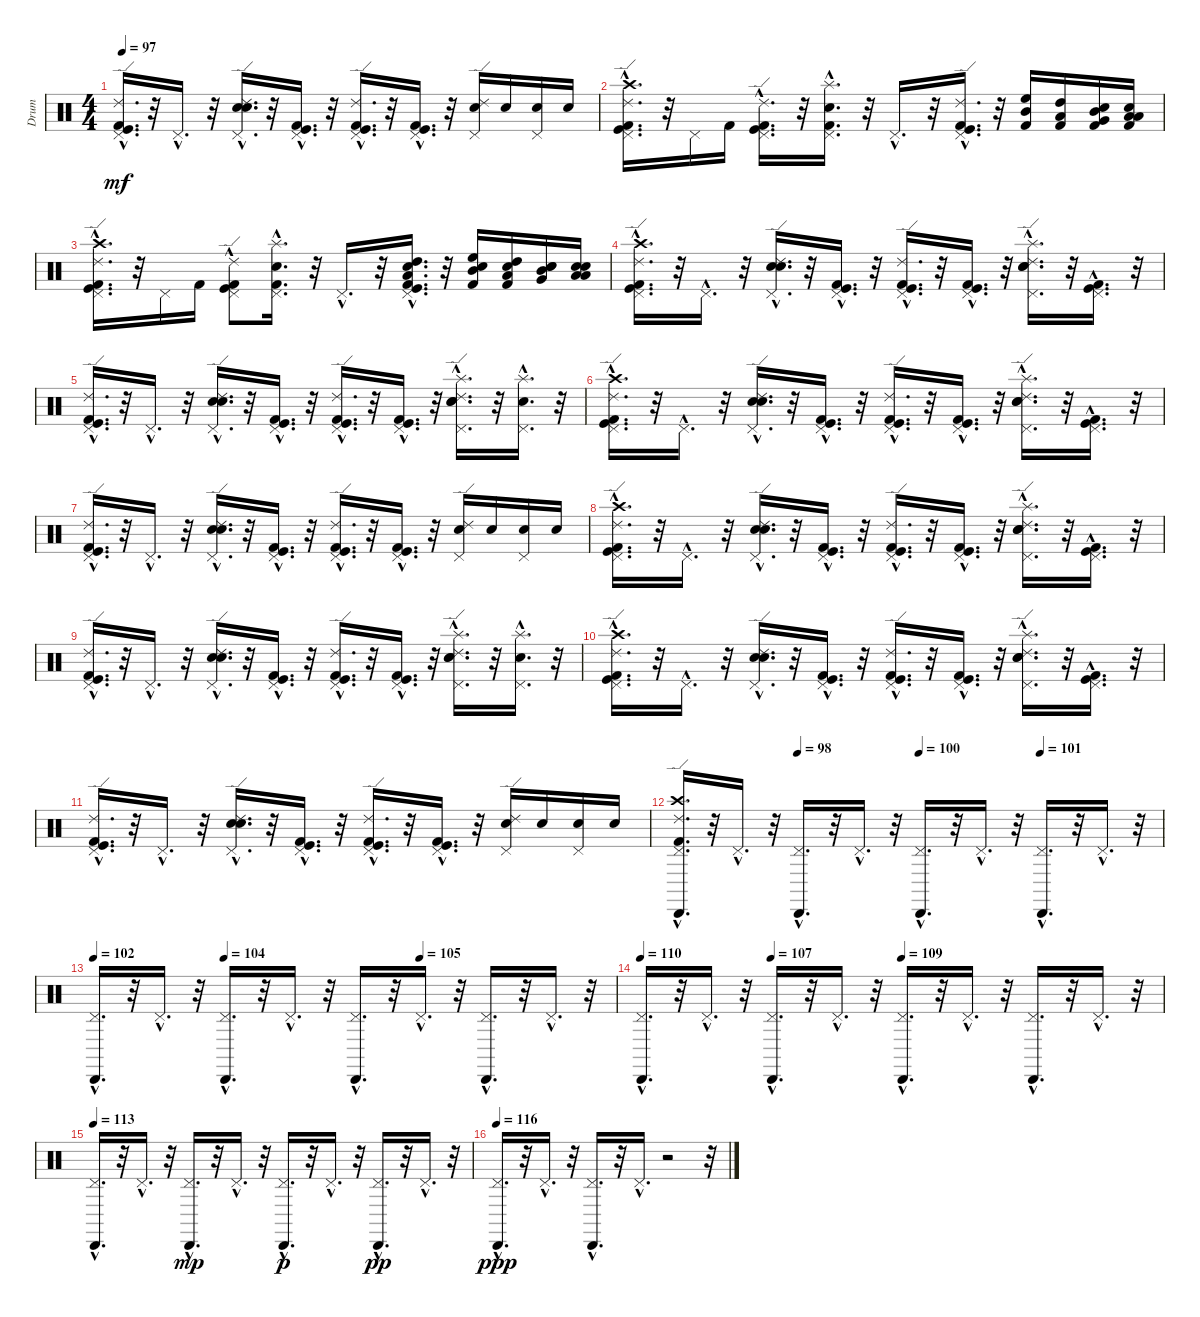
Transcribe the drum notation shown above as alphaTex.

\track ("Drum" "Drum") {instrument percussion}
\staff {score}
\articulation defaults
\ts (4 4)
\tempo 97
\clef neutral
\ks c
("Kick (hit)"{hac} "Kick (hit) 2"{hac} "Ride (edge) 2"{hac} "Pedal Hi-Hat (hit)"{hac}).16{d dy mf} r.32 "Pedal Hi-Hat (hit)"{hac}.16{d} r.32 ("Electric Snare (hit)"{hac} "Snare (hit) 2"{hac} "Ride (edge) 2"{hac} "Pedal Hi-Hat (hit)"{hac}).16{d} r.32 ("Kick (hit) 2"{hac} "Kick (hit)"{hac} "Pedal Hi-Hat (hit)"{hac}).16{d} r.32 ("Kick (hit) 2"{hac} "Kick (hit)"{hac} "Ride (edge) 2"{hac} "Pedal Hi-Hat (hit)"{hac}).16{d} r.32 ("Kick (hit) 2"{hac} "Kick (hit)"{hac} "Pedal Hi-Hat (hit)"{hac}).16{d} r.32 ("Ride (edge) 2" "Pedal Hi-Hat (hit)" "Snare (hit) 2").16 "Snare (hit) 2".16 ("Pedal Hi-Hat (hit)" "Snare (hit) 2").16 "Snare (hit) 2".16 |
("Kick (hit) 2"{hac} "Pedal Hi-Hat (hit)"{hac} "Kick (hit)"{hac} "Crash high (hit)"{hac} "Ride (edge) 2"{hac}).16{d} r.32 "Pedal Hi-Hat (hit)".16 "Kick (hit) 2".16 ("Pedal Hi-Hat (hit)"{hac} "Ride (edge) 2"{hac} "Kick (hit)"{hac} "Kick (hit) 2"{hac}).16{d} r.32 ("Pedal Hi-Hat (hit)"{hac} "Snare (hit) 2"{hac} "Kick (hit) 2"{hac} "Splash (hit)"{hac}).16{d} r.32 "Pedal Hi-Hat (hit)"{hac}.16{d} r.32 ("Ride (edge) 2"{hac} "Kick (hit) 2"{hac} "Pedal Hi-Hat (hit)"{hac} "Kick (hit)"{hac}).16{d} r.32 ("Kick (hit) 2" "High Floor Tom (hit)" "Mid Tom (hit)").16 ("Kick (hit) 2" "Low Tom (hit)" "High Tom (hit)").16 ("Very Low Tom (hit)" "Electric Snare (hit)" "Kick (hit) 2" "Mid Tom (hit)").16 ("Electric Snare (hit)" "Kick (hit) 2" "Low Floor Tom (hit)" "Low Tom (hit)").16 |
("Pedal Hi-Hat (hit)"{hac} "Ride (edge) 2"{hac} "Kick (hit) 2"{hac} "Crash high (hit)"{hac} "Kick (hit)"{hac}).16{d} r.32 "Pedal Hi-Hat (hit)".16 "Kick (hit) 2".16 ("Kick (hit)"{hac} "Ride (edge) 2"{hac} "Kick (hit) 2"{hac} "Pedal Hi-Hat (hit)"{hac}).8 ("Kick (hit) 2"{hac} "Pedal Hi-Hat (hit)"{hac} "Snare (hit) 2"{hac} "Splash (hit)"{hac}).16{d} r.32 "Pedal Hi-Hat (hit)"{hac}.16{d} r.32 ("Snare (hit) 2"{hac} "Low Tom (hit)"{hac} "High Tom (hit)"{hac} "Pedal Hi-Hat (hit)"{hac} "Kick (hit) 2"{hac} "Kick (hit)"{hac}).16{d} r.32 ("Kick (hit) 2" "Mid Tom (hit)" "High Floor Tom (hit)" "Snare (hit) 2").16 ("Low Tom (hit)" "High Tom (hit)" "Kick (hit) 2" "Snare (hit) 2").16 ("Electric Snare (hit)" "Mid Tom (hit)" "Snare (hit) 2" "Very Low Tom (hit)").16 ("Electric Snare (hit)" "Snare (hit) 2" "Low Tom (hit)" "Low Floor Tom (hit)").16 |
("Crash high (hit)"{hac} "Kick (hit)"{hac} "Ride (edge) 2"{hac} "Kick (hit) 2"{hac} "Pedal Hi-Hat (hit)"{hac}).16{d} r.32 "Pedal Hi-Hat (hit)"{hac}.16{d} r.32 ("Snare (hit) 2"{hac} "Ride (edge) 2"{hac} "Pedal Hi-Hat (hit)"{hac} "Electric Snare (hit)"{hac}).16{d} r.32 ("Kick (hit) 2"{hac} "Kick (hit)"{hac} "Pedal Hi-Hat (hit)"{hac}).16{d} r.32 ("Pedal Hi-Hat (hit)"{hac} "Kick (hit) 2"{hac} "Ride (edge) 2"{hac} "Kick (hit)"{hac}).16{d} r.32 ("Kick (hit) 2"{hac} "Kick (hit)"{hac} "Pedal Hi-Hat (hit)"{hac}).16{d} r.32 ("Ride (edge) 2"{hac} "Electric Snare (hit)"{hac} "Snare (hit) 2"{hac} "Pedal Hi-Hat (hit)"{hac} "Splash (hit)"{hac}).16{d} r.32 ("Pedal Hi-Hat (hit)"{hac} "Kick (hit) 2"{hac} "Kick (hit)"{hac}).16{d} r.32 |
("Pedal Hi-Hat (hit)"{hac} "Ride (edge) 2"{hac} "Kick (hit) 2"{hac} "Kick (hit)"{hac}).16{d} r.32 "Pedal Hi-Hat (hit)"{hac}.16{d} r.32 ("Pedal Hi-Hat (hit)"{hac} "Ride (edge) 2"{hac} "Snare (hit) 2"{hac} "Electric Snare (hit)"{hac}).16{d} r.32 ("Pedal Hi-Hat (hit)"{hac} "Kick (hit)"{hac} "Kick (hit) 2"{hac}).16{d} r.32 ("Pedal Hi-Hat (hit)"{hac} "Ride (edge) 2"{hac} "Kick (hit)"{hac} "Kick (hit) 2"{hac}).16{d} r.32 ("Pedal Hi-Hat (hit)"{hac} "Kick (hit)"{hac} "Kick (hit) 2"{hac}).16{d} r.32 ("Pedal Hi-Hat (hit)"{hac} "Ride (edge) 2"{hac} "Snare (hit) 2"{hac} "Electric Snare (hit)"{hac} "Splash (hit)"{hac}).16{d} r.32 ("Splash (hit)"{hac} "Snare (hit) 2"{hac} "Pedal Hi-Hat (hit)"{hac}).16{d} r.32 |
("Pedal Hi-Hat (hit)"{hac} "Ride (edge) 2"{hac} "Kick (hit) 2"{hac} "Kick (hit)"{hac} "Crash high (hit)"{hac}).16{d} r.32 "Pedal Hi-Hat (hit)"{hac}.16{d} r.32 ("Pedal Hi-Hat (hit)"{hac} "Ride (edge) 2"{hac} "Snare (hit) 2"{hac} "Electric Snare (hit)"{hac}).16{d} r.32 ("Pedal Hi-Hat (hit)"{hac} "Kick (hit)"{hac} "Kick (hit) 2"{hac}).16{d} r.32 ("Pedal Hi-Hat (hit)"{hac} "Ride (edge) 2"{hac} "Kick (hit)"{hac} "Kick (hit) 2"{hac}).16{d} r.32 ("Pedal Hi-Hat (hit)"{hac} "Kick (hit)"{hac} "Kick (hit) 2"{hac}).16{d} r.32 ("Pedal Hi-Hat (hit)"{hac} "Ride (edge) 2"{hac} "Snare (hit) 2"{hac} "Electric Snare (hit)"{hac} "Splash (hit)"{hac}).16{d} r.32 ("Kick (hit) 2"{hac} "Pedal Hi-Hat (hit)"{hac} "Kick (hit)"{hac}).16{d} r.32 |
("Kick (hit)"{hac} "Kick (hit) 2"{hac} "Ride (edge) 2"{hac} "Pedal Hi-Hat (hit)"{hac}).16{d} r.32 "Pedal Hi-Hat (hit)"{hac}.16{d} r.32 ("Electric Snare (hit)"{hac} "Snare (hit) 2"{hac} "Ride (edge) 2"{hac} "Pedal Hi-Hat (hit)"{hac}).16{d} r.32 ("Kick (hit) 2"{hac} "Kick (hit)"{hac} "Pedal Hi-Hat (hit)"{hac}).16{d} r.32 ("Kick (hit) 2"{hac} "Kick (hit)"{hac} "Ride (edge) 2"{hac} "Pedal Hi-Hat (hit)"{hac}).16{d} r.32 ("Kick (hit) 2"{hac} "Kick (hit)"{hac} "Pedal Hi-Hat (hit)"{hac}).16{d} r.32 ("Ride (edge) 2" "Pedal Hi-Hat (hit)" "Snare (hit) 2").16 "Snare (hit) 2".16 ("Pedal Hi-Hat (hit)" "Snare (hit) 2").16 "Snare (hit) 2".16 |
("Pedal Hi-Hat (hit)"{hac} "Ride (edge) 2"{hac} "Kick (hit) 2"{hac} "Kick (hit)"{hac} "Crash high (hit)"{hac}).16{d} r.32 "Pedal Hi-Hat (hit)"{hac}.16{d} r.32 ("Pedal Hi-Hat (hit)"{hac} "Ride (edge) 2"{hac} "Snare (hit) 2"{hac} "Electric Snare (hit)"{hac}).16{d} r.32 ("Pedal Hi-Hat (hit)"{hac} "Kick (hit)"{hac} "Kick (hit) 2"{hac}).16{d} r.32 ("Pedal Hi-Hat (hit)"{hac} "Ride (edge) 2"{hac} "Kick (hit)"{hac} "Kick (hit) 2"{hac}).16{d} r.32 ("Pedal Hi-Hat (hit)"{hac} "Kick (hit)"{hac} "Kick (hit) 2"{hac}).16{d} r.32 ("Pedal Hi-Hat (hit)"{hac} "Ride (edge) 2"{hac} "Snare (hit) 2"{hac} "Electric Snare (hit)"{hac} "Splash (hit)"{hac}).16{d} r.32 ("Kick (hit) 2"{hac} "Pedal Hi-Hat (hit)"{hac} "Kick (hit)"{hac}).16{d} r.32 |
("Kick (hit)"{hac} "Kick (hit) 2"{hac} "Ride (edge) 2"{hac} "Pedal Hi-Hat (hit)"{hac}).16{d} r.32 "Pedal Hi-Hat (hit)"{hac}.16{d} r.32 ("Electric Snare (hit)"{hac} "Snare (hit) 2"{hac} "Ride (edge) 2"{hac} "Pedal Hi-Hat (hit)"{hac}).16{d} r.32 ("Kick (hit) 2"{hac} "Kick (hit)"{hac} "Pedal Hi-Hat (hit)"{hac}).16{d} r.32 ("Kick (hit) 2"{hac} "Kick (hit)"{hac} "Ride (edge) 2"{hac} "Pedal Hi-Hat (hit)"{hac}).16{d} r.32 ("Kick (hit) 2"{hac} "Kick (hit)"{hac} "Pedal Hi-Hat (hit)"{hac}).16{d} r.32 ("Splash (hit)"{hac} "Electric Snare (hit)"{hac} "Snare (hit) 2"{hac} "Ride (edge) 2"{hac} "Pedal Hi-Hat (hit)"{hac}).16{d} r.32 ("Pedal Hi-Hat (hit)"{hac} "Snare (hit) 2"{hac} "Splash (hit)"{hac}).16{d} r.32 |
("Kick (hit)"{hac} "Kick (hit) 2"{hac} "Crash high (hit)"{hac} "Ride (edge) 2"{hac} "Pedal Hi-Hat (hit)"{hac}).16{d} r.32 "Pedal Hi-Hat (hit)"{hac}.16{d} r.32 ("Pedal Hi-Hat (hit)"{hac} "Ride (edge) 2"{hac} "Electric Snare (hit)"{hac} "Snare (hit) 2"{hac}).16{d} r.32 ("Pedal Hi-Hat (hit)"{hac} "Kick (hit) 2"{hac} "Kick (hit)"{hac}).16{d} r.32 ("Kick (hit)"{hac} "Ride (edge) 2"{hac} "Kick (hit) 2"{hac} "Pedal Hi-Hat (hit)"{hac}).16{d} r.32 ("Kick (hit) 2"{hac} "Kick (hit)"{hac} "Pedal Hi-Hat (hit)"{hac}).16{d} r.32 ("Electric Snare (hit)"{hac} "Snare (hit) 2"{hac} "Splash (hit)"{hac} "Pedal Hi-Hat (hit)"{hac} "Ride (edge) 2"{hac}).16{d} r.32 ("Pedal Hi-Hat (hit)"{hac} "Kick (hit)"{hac} "Kick (hit) 2"{hac}).16{d} r.32 |
("Ride (edge) 2"{hac} "Kick (hit) 2"{hac} "Pedal Hi-Hat (hit)"{hac} "Kick (hit)"{hac}).16{d} r.32 "Pedal Hi-Hat (hit)"{hac}.16{d} r.32 ("Electric Snare (hit)"{hac} "Snare (hit) 2"{hac} "Ride (edge) 2"{hac} "Pedal Hi-Hat (hit)"{hac}).16{d} r.32 ("Kick (hit)"{hac} "Kick (hit) 2"{hac} "Pedal Hi-Hat (hit)"{hac}).16{d} r.32 ("Ride (edge) 2"{hac} "Kick (hit)"{hac} "Pedal Hi-Hat (hit)"{hac} "Kick (hit) 2"{hac}).16{d} r.32 ("Kick (hit)"{hac} "Kick (hit) 2"{hac} "Pedal Hi-Hat (hit)"{hac}).16{d} r.32 ("Pedal Hi-Hat (hit)" "Snare (hit) 2" "Ride (edge) 2").16 "Snare (hit) 2".16 ("Snare (hit) 2" "Pedal Hi-Hat (hit)").16 "Snare (hit) 2".16 |
\tempo (98 0.25)
\tempo (100 0.5)
\tempo (101 0.75)
("Kick (hit) 2"{hac} "Ride (edge) 2"{hac} "Crash high (hit)"{hac} "Pedal Hi-Hat (hit)"{hac} "Cabasa (hit)"{hac}).16{d} r.32 "Pedal Hi-Hat (hit)"{hac}.16{d} r.32 ("Cabasa (hit)"{hac} "Pedal Hi-Hat (hit)"{hac}).16{d} r.32 "Pedal Hi-Hat (hit)"{hac}.16{d} r.32 ("Pedal Hi-Hat (hit)"{hac} "Cabasa (hit)"{hac}).16{d} r.32 "Pedal Hi-Hat (hit)"{hac}.16{d} r.32 ("Cabasa (hit)"{hac} "Pedal Hi-Hat (hit)"{hac}).16{d} r.32 "Pedal Hi-Hat (hit)"{hac}.16{d} r.32 |
\tempo 102
\tempo (104 0.25)
\tempo (105 0.625)
("Pedal Hi-Hat (hit)"{hac} "Cabasa (hit)"{hac}).16{d} r.32 "Pedal Hi-Hat (hit)"{hac}.16{d} r.32 ("Cabasa (hit)"{hac} "Pedal Hi-Hat (hit)"{hac}).16{d} r.32 "Pedal Hi-Hat (hit)"{hac}.16{d} r.32 ("Pedal Hi-Hat (hit)"{hac} "Cabasa (hit)"{hac}).16{d} r.32 "Pedal Hi-Hat (hit)"{hac}.16{d} r.32 ("Pedal Hi-Hat (hit)"{hac} "Cabasa (hit)"{hac}).16{d} r.32 "Pedal Hi-Hat (hit)"{hac}.16{d} r.32 |
\tempo 110
\tempo (107 0.25)
\tempo (109 0.5)
("Cabasa (hit)"{hac} "Pedal Hi-Hat (hit)"{hac}).16{d} r.32 "Pedal Hi-Hat (hit)"{hac}.16{d} r.32 ("Pedal Hi-Hat (hit)"{hac} "Cabasa (hit)"{hac}).16{d} r.32 "Pedal Hi-Hat (hit)"{hac}.16{d} r.32 ("Pedal Hi-Hat (hit)"{hac} "Cabasa (hit)"{hac}).16{d} r.32 "Pedal Hi-Hat (hit)"{hac}.16{d} r.32 ("Cabasa (hit)"{hac} "Pedal Hi-Hat (hit)"{hac}).16{d} r.32 "Pedal Hi-Hat (hit)"{hac}.16{d} r.32 |
\tempo 113
("Cabasa (hit)"{hac} "Pedal Hi-Hat (hit)"{hac}).16{d} r.32 "Pedal Hi-Hat (hit)"{hac}.16{d} r.32 ("Pedal Hi-Hat (hit)"{hac} "Cabasa (hit)"{hac}).16{d dy mp} r.32 "Pedal Hi-Hat (hit)"{hac}.16{d} r.32 ("Pedal Hi-Hat (hit)"{hac} "Cabasa (hit)"{hac}).16{d dy p} r.32 "Pedal Hi-Hat (hit)"{hac}.16{d} r.32 ("Pedal Hi-Hat (hit)"{hac} "Cabasa (hit)"{hac}).16{d dy pp} r.32 "Pedal Hi-Hat (hit)"{hac}.16{d} r.32 |
\tempo 116
("Pedal Hi-Hat (hit)"{hac} "Cabasa (hit)"{hac}).16{d dy ppp} r.32 "Pedal Hi-Hat (hit)"{hac}.16{d} r.32 ("Pedal Hi-Hat (hit)"{hac} "Cabasa (hit)"{hac}).16{d} r.32 "Pedal Hi-Hat (hit)"{hac}.16{d} r.2 r.32
